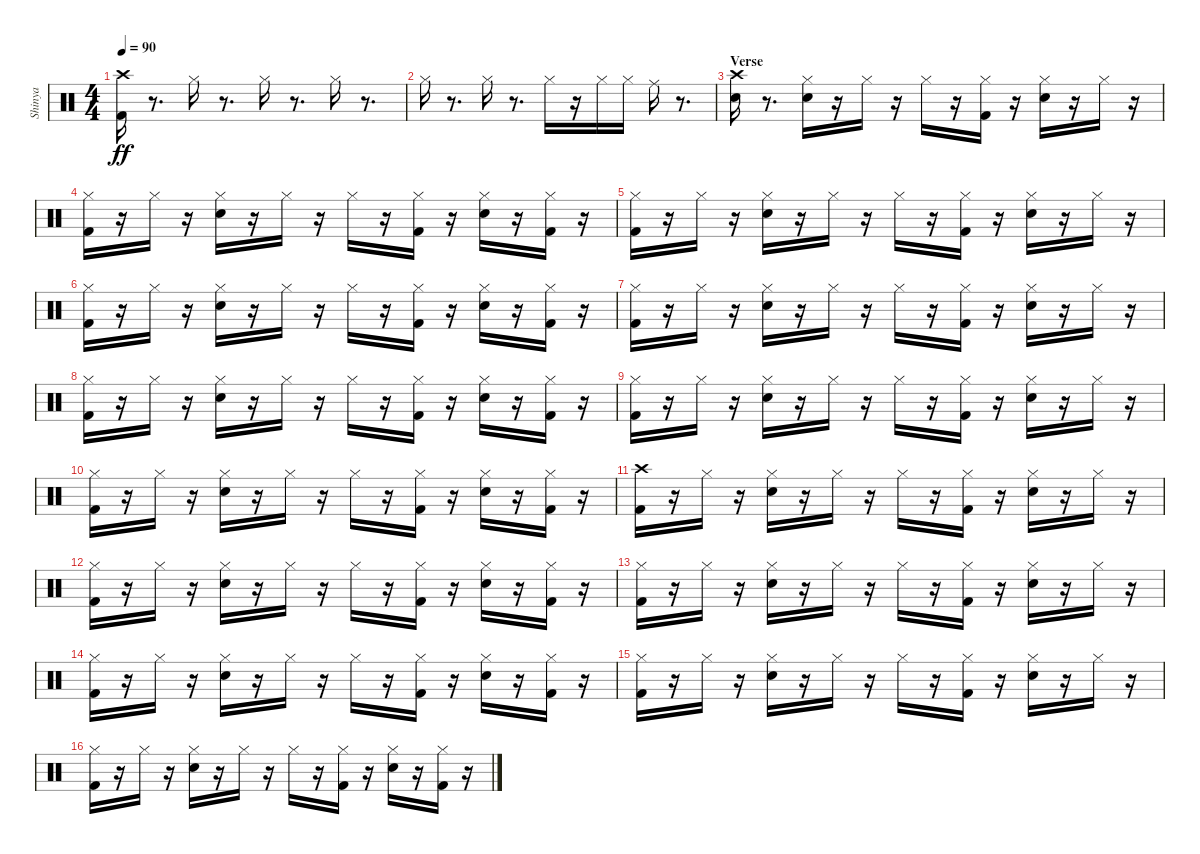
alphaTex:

\track ("Shinya" "Shinya") {instrument percussion}
\staff {score}
\articulation defaults
\ts (4 4)
\tempo 90
\clef neutral
\ks c
("Crash high (hit)" "Kick (hit) 2").16{dy ff} r.8{d} "Hi-Hat (closed)".16 r.8{d} "Hi-Hat (closed)".16 r.8{d} "Hi-Hat (closed)".16 r.8{d} |
"Hi-Hat (closed)".16 r.8{d} "Hi-Hat (closed)".16 r.8{d} "Hi-Hat (closed)".16 r.16 "Hi-Hat (closed)".16 "Hi-Hat (closed)".16 "Ride (middle)".16 r.8{d} |
\section ("" "Verse")
("Crash high (hit)" "Snare (hit)").16 r.8{d} ("Snare (hit) 2" "Hi-Hat (closed)").16 r.16 "Hi-Hat (closed)".16 r.16 "Hi-Hat (closed)".16 r.16 ("Hi-Hat (closed)" "Kick (hit) 2").16 r.16 ("Snare (hit) 2" "Hi-Hat (closed)").16 r.16 "Hi-Hat (closed)".16 r.16 |
("Hi-Hat (closed)" "Kick (hit) 2").16 r.16 "Hi-Hat (closed)".16 r.16 ("Snare (hit) 2" "Hi-Hat (closed)").16 r.16 "Hi-Hat (closed)".16 r.16 "Hi-Hat (closed)".16 r.16 ("Hi-Hat (closed)" "Kick (hit) 2").16 r.16 ("Snare (hit) 2" "Hi-Hat (closed)").16 r.16 ("Hi-Hat (closed)" "Kick (hit) 2").16 r.16 |
("Hi-Hat (closed)" "Kick (hit) 2").16 r.16 "Hi-Hat (closed)".16 r.16 ("Snare (hit) 2" "Hi-Hat (closed)").16 r.16 "Hi-Hat (closed)".16 r.16 "Hi-Hat (closed)".16 r.16 ("Hi-Hat (closed)" "Kick (hit) 2").16 r.16 ("Snare (hit) 2" "Hi-Hat (closed)").16 r.16 "Hi-Hat (closed)".16 r.16 |
("Hi-Hat (closed)" "Kick (hit) 2").16 r.16 "Hi-Hat (closed)".16 r.16 ("Snare (hit) 2" "Hi-Hat (closed)").16 r.16 "Hi-Hat (closed)".16 r.16 "Hi-Hat (closed)".16 r.16 ("Hi-Hat (closed)" "Kick (hit) 2").16 r.16 ("Snare (hit) 2" "Hi-Hat (closed)").16 r.16 ("Hi-Hat (closed)" "Kick (hit) 2").16 r.16 |
("Hi-Hat (closed)" "Kick (hit) 2").16 r.16 "Hi-Hat (closed)".16 r.16 ("Snare (hit) 2" "Hi-Hat (closed)").16 r.16 "Hi-Hat (closed)".16 r.16 "Hi-Hat (closed)".16 r.16 ("Hi-Hat (closed)" "Kick (hit) 2").16 r.16 ("Snare (hit) 2" "Hi-Hat (closed)").16 r.16 "Hi-Hat (closed)".16 r.16 |
("Hi-Hat (closed)" "Kick (hit) 2").16 r.16 "Hi-Hat (closed)".16 r.16 ("Snare (hit) 2" "Hi-Hat (closed)").16 r.16 "Hi-Hat (closed)".16 r.16 "Hi-Hat (closed)".16 r.16 ("Hi-Hat (closed)" "Kick (hit) 2").16 r.16 ("Snare (hit) 2" "Hi-Hat (closed)").16 r.16 ("Hi-Hat (closed)" "Kick (hit) 2").16 r.16 |
("Hi-Hat (closed)" "Kick (hit) 2").16 r.16 "Hi-Hat (closed)".16 r.16 ("Snare (hit) 2" "Hi-Hat (closed)").16 r.16 "Hi-Hat (closed)".16 r.16 "Hi-Hat (closed)".16 r.16 ("Hi-Hat (closed)" "Kick (hit) 2").16 r.16 ("Snare (hit) 2" "Hi-Hat (closed)").16 r.16 "Hi-Hat (closed)".16 r.16 |
("Hi-Hat (closed)" "Kick (hit) 2").16 r.16 "Hi-Hat (closed)".16 r.16 ("Snare (hit) 2" "Hi-Hat (closed)").16 r.16 "Hi-Hat (closed)".16 r.16 "Hi-Hat (closed)".16 r.16 ("Hi-Hat (closed)" "Kick (hit) 2").16 r.16 ("Snare (hit) 2" "Hi-Hat (closed)").16 r.16 ("Hi-Hat (closed)" "Kick (hit) 2").16 r.16 |
("Crash high (hit)" "Kick (hit) 2").16 r.16 "Hi-Hat (closed)".16 r.16 ("Snare (hit) 2" "Hi-Hat (closed)").16 r.16 "Hi-Hat (closed)".16 r.16 "Hi-Hat (closed)".16 r.16 ("Hi-Hat (closed)" "Kick (hit) 2").16 r.16 ("Snare (hit) 2" "Hi-Hat (closed)").16 r.16 "Hi-Hat (closed)".16 r.16 |
("Hi-Hat (closed)" "Kick (hit) 2").16 r.16 "Hi-Hat (closed)".16 r.16 ("Snare (hit) 2" "Hi-Hat (closed)").16 r.16 "Hi-Hat (closed)".16 r.16 "Hi-Hat (closed)".16 r.16 ("Hi-Hat (closed)" "Kick (hit) 2").16 r.16 ("Snare (hit) 2" "Hi-Hat (closed)").16 r.16 ("Hi-Hat (closed)" "Kick (hit) 2").16 r.16 |
("Hi-Hat (closed)" "Kick (hit) 2").16 r.16 "Hi-Hat (closed)".16 r.16 ("Snare (hit) 2" "Hi-Hat (closed)").16 r.16 "Hi-Hat (closed)".16 r.16 "Hi-Hat (closed)".16 r.16 ("Hi-Hat (closed)" "Kick (hit) 2").16 r.16 ("Snare (hit) 2" "Hi-Hat (closed)").16 r.16 "Hi-Hat (closed)".16 r.16 |
("Hi-Hat (closed)" "Kick (hit) 2").16 r.16 "Hi-Hat (closed)".16 r.16 ("Snare (hit) 2" "Hi-Hat (closed)").16 r.16 "Hi-Hat (closed)".16 r.16 "Hi-Hat (closed)".16 r.16 ("Hi-Hat (closed)" "Kick (hit) 2").16 r.16 ("Snare (hit) 2" "Hi-Hat (closed)").16 r.16 ("Hi-Hat (closed)" "Kick (hit) 2").16 r.16 |
("Hi-Hat (closed)" "Kick (hit) 2").16 r.16 "Hi-Hat (closed)".16 r.16 ("Snare (hit) 2" "Hi-Hat (closed)").16 r.16 "Hi-Hat (closed)".16 r.16 "Hi-Hat (closed)".16 r.16 ("Hi-Hat (closed)" "Kick (hit) 2").16 r.16 ("Snare (hit) 2" "Hi-Hat (closed)").16 r.16 "Hi-Hat (closed)".16 r.16 |
("Hi-Hat (closed)" "Kick (hit) 2").16 r.16 "Hi-Hat (closed)".16 r.16 ("Snare (hit) 2" "Hi-Hat (closed)").16 r.16 "Hi-Hat (closed)".16 r.16 "Hi-Hat (closed)".16 r.16 ("Hi-Hat (closed)" "Kick (hit) 2").16 r.16 ("Snare (hit) 2" "Hi-Hat (closed)").16 r.16 ("Hi-Hat (closed)" "Kick (hit) 2").16 r.16
